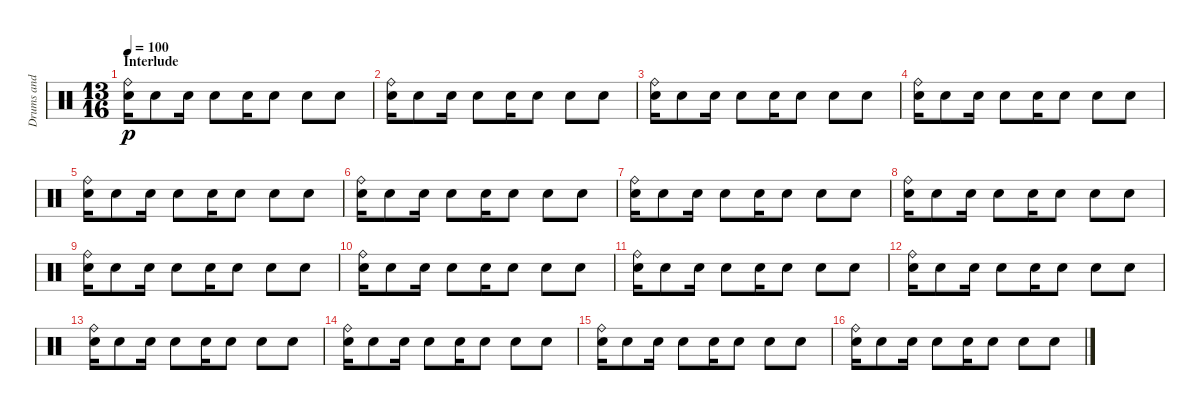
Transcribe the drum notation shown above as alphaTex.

\track ("Drums and FX" "Drums and ") {instrument percussion}
\staff {score}
\articulation defaults
\ts (13 16)
\section ("" "Interlude")
\tempo 100
\clef neutral
\ks c
("Ride (bell)" "Electric Snare (hit)").16{dy p} "Electric Snare (hit)".8 "Electric Snare (hit)".16 "Electric Snare (hit)".8 "Electric Snare (hit)".16 "Electric Snare (hit)".8 "Electric Snare (hit)".8 "Electric Snare (hit)".8 |
("Ride (bell)" "Electric Snare (hit)").16 "Electric Snare (hit)".8 "Electric Snare (hit)".16 "Electric Snare (hit)".8 "Electric Snare (hit)".16 "Electric Snare (hit)".8 "Electric Snare (hit)".8 "Electric Snare (hit)".8 |
("Ride (bell)" "Electric Snare (hit)").16 "Electric Snare (hit)".8 "Electric Snare (hit)".16 "Electric Snare (hit)".8 "Electric Snare (hit)".16 "Electric Snare (hit)".8 "Electric Snare (hit)".8 "Electric Snare (hit)".8 |
("Ride (bell)" "Electric Snare (hit)").16 "Electric Snare (hit)".8 "Electric Snare (hit)".16 "Electric Snare (hit)".8 "Electric Snare (hit)".16 "Electric Snare (hit)".8 "Electric Snare (hit)".8 "Electric Snare (hit)".8 |
("Ride (bell)" "Electric Snare (hit)").16 "Electric Snare (hit)".8 "Electric Snare (hit)".16 "Electric Snare (hit)".8 "Electric Snare (hit)".16 "Electric Snare (hit)".8 "Electric Snare (hit)".8 "Electric Snare (hit)".8 |
("Ride (bell)" "Electric Snare (hit)").16 "Electric Snare (hit)".8 "Electric Snare (hit)".16 "Electric Snare (hit)".8 "Electric Snare (hit)".16 "Electric Snare (hit)".8 "Electric Snare (hit)".8 "Electric Snare (hit)".8 |
("Ride (bell)" "Electric Snare (hit)").16 "Electric Snare (hit)".8 "Electric Snare (hit)".16 "Electric Snare (hit)".8 "Electric Snare (hit)".16 "Electric Snare (hit)".8 "Electric Snare (hit)".8 "Electric Snare (hit)".8 |
("Ride (bell)" "Electric Snare (hit)").16 "Electric Snare (hit)".8 "Electric Snare (hit)".16 "Electric Snare (hit)".8 "Electric Snare (hit)".16 "Electric Snare (hit)".8 "Electric Snare (hit)".8 "Electric Snare (hit)".8 |
("Ride (bell)" "Electric Snare (hit)").16 "Electric Snare (hit)".8 "Electric Snare (hit)".16 "Electric Snare (hit)".8 "Electric Snare (hit)".16 "Electric Snare (hit)".8 "Electric Snare (hit)".8 "Electric Snare (hit)".8 |
("Ride (bell)" "Electric Snare (hit)").16 "Electric Snare (hit)".8 "Electric Snare (hit)".16 "Electric Snare (hit)".8 "Electric Snare (hit)".16 "Electric Snare (hit)".8 "Electric Snare (hit)".8 "Electric Snare (hit)".8 |
("Ride (bell)" "Electric Snare (hit)").16 "Electric Snare (hit)".8 "Electric Snare (hit)".16 "Electric Snare (hit)".8 "Electric Snare (hit)".16 "Electric Snare (hit)".8 "Electric Snare (hit)".8 "Electric Snare (hit)".8 |
("Ride (bell)" "Electric Snare (hit)").16 "Electric Snare (hit)".8 "Electric Snare (hit)".16 "Electric Snare (hit)".8 "Electric Snare (hit)".16 "Electric Snare (hit)".8 "Electric Snare (hit)".8 "Electric Snare (hit)".8 |
("Ride (bell)" "Electric Snare (hit)").16 "Electric Snare (hit)".8 "Electric Snare (hit)".16 "Electric Snare (hit)".8 "Electric Snare (hit)".16 "Electric Snare (hit)".8 "Electric Snare (hit)".8 "Electric Snare (hit)".8 |
("Ride (bell)" "Electric Snare (hit)").16 "Electric Snare (hit)".8 "Electric Snare (hit)".16 "Electric Snare (hit)".8 "Electric Snare (hit)".16 "Electric Snare (hit)".8 "Electric Snare (hit)".8 "Electric Snare (hit)".8 |
("Ride (bell)" "Electric Snare (hit)").16 "Electric Snare (hit)".8 "Electric Snare (hit)".16 "Electric Snare (hit)".8 "Electric Snare (hit)".16 "Electric Snare (hit)".8 "Electric Snare (hit)".8 "Electric Snare (hit)".8 |
("Ride (bell)" "Electric Snare (hit)").16 "Electric Snare (hit)".8 "Electric Snare (hit)".16 "Electric Snare (hit)".8 "Electric Snare (hit)".16 "Electric Snare (hit)".8 "Electric Snare (hit)".8 "Electric Snare (hit)".8
